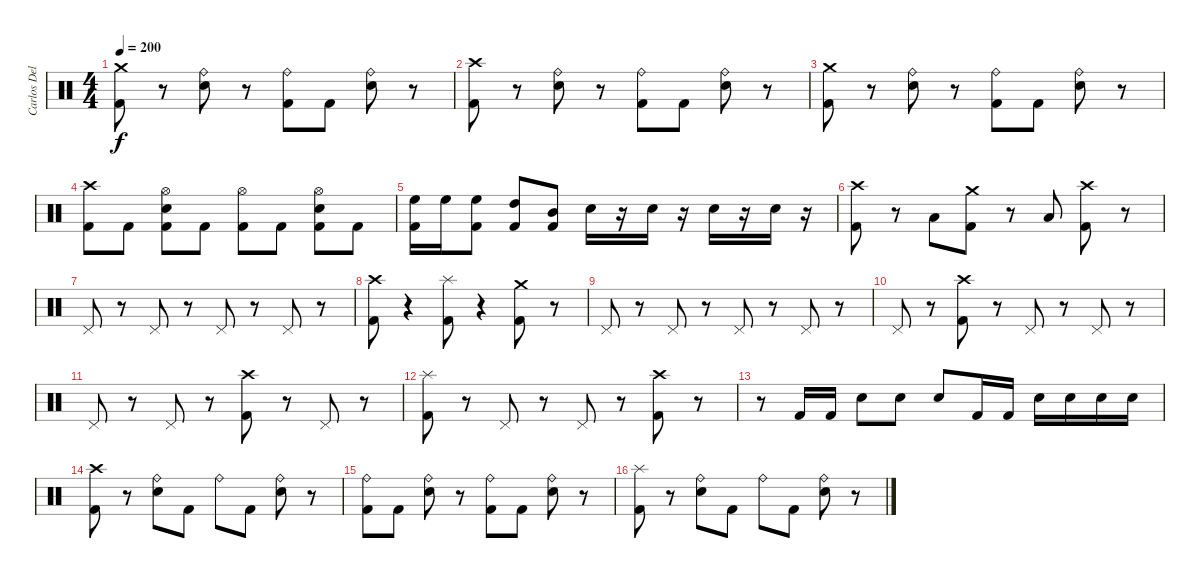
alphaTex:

\track ("Carlos Delgado" "Carlos Del") {instrument percussion}
\staff {score}
\articulation defaults
\ts (4 4)
\tempo 200
\clef neutral
\ks c
("Kick (hit) 2" "Crash medium (hit)").8{dy f} r.8 ("Electric Snare (hit)" "Ride (bell)").8 r.8 ("Ride (bell)" "Kick (hit) 2").8 "Kick (hit) 2".8 ("Ride (bell)" "Electric Snare (hit)").8 r.8 |
("Kick (hit) 2" "Crash high (hit)").8 r.8 ("Electric Snare (hit)" "Ride (bell)").8 r.8 ("Ride (bell)" "Kick (hit) 2").8 "Kick (hit) 2".8 ("Ride (bell)" "Electric Snare (hit)").8 r.8 |
("Crash medium (hit)" "Kick (hit) 2").8 r.8 ("Ride (bell)" "Electric Snare (hit)").8 r.8 ("Ride (bell)" "Kick (hit) 2").8 "Kick (hit) 2".8 ("Ride (bell)" "Electric Snare (hit)").8 r.8 |
("Kick (hit) 2" "Crash high (hit)").8 "Kick (hit) 2".8 ("Kick (hit) 2" "Hi-Hat (open)" "Electric Snare (hit)").8 "Kick (hit) 2".8 ("Kick (hit) 2" "Hi-Hat (open)").8 "Kick (hit) 2".8 ("Kick (hit) 2" "Electric Snare (hit)" "Hi-Hat (open)").8 "Kick (hit) 2".8 |
("Kick (hit) 2" "High Floor Tom (hit)").16 "High Floor Tom (hit)".16 ("Kick (hit) 2" "High Floor Tom (hit)").8 ("High Tom (hit)" "Kick (hit) 2").8 ("Kick (hit) 2" "Mid Tom (hit)").8 "Electric Snare (hit)".16 r.16 "Electric Snare (hit)".16 r.16 "Electric Snare (hit)".16 r.16 "Electric Snare (hit)".16 r.16 |
("Crash high (hit)" "Kick (hit) 2").8 r.8 "Low Floor Tom (hit)".8 ("Crash medium (hit)" "Kick (hit) 2").8 r.8 "Low Floor Tom (hit)".8 ("Crash high (hit)" "Kick (hit) 2").8 r.8 |
"Pedal Hi-Hat (hit)".8 r.8 "Pedal Hi-Hat (hit)".8 r.8 "Pedal Hi-Hat (hit)".8 r.8 "Pedal Hi-Hat (hit)".8 r.8 |
("Crash high (hit)" "Kick (hit) 2").8 r.4 ("Kick (hit) 2" "Splash (hit)").8 r.4 ("Crash medium (hit)" "Kick (hit) 2").8 r.8 |
"Pedal Hi-Hat (hit)".8 r.8 "Pedal Hi-Hat (hit)".8 r.8 "Pedal Hi-Hat (hit)".8 r.8 "Pedal Hi-Hat (hit)".8 r.8 |
"Pedal Hi-Hat (hit)".8 r.8 ("Crash high (hit)" "Kick (hit) 2").8 r.8 "Pedal Hi-Hat (hit)".8 r.8 "Pedal Hi-Hat (hit)".8 r.8 |
"Pedal Hi-Hat (hit)".8 r.8 "Pedal Hi-Hat (hit)".8 r.8 ("Kick (hit) 2" "Crash high (hit)").8 r.8 "Pedal Hi-Hat (hit)".8 r.8 |
("Splash (hit)" "Kick (hit) 2").8 r.8 "Pedal Hi-Hat (hit)".8 r.8 "Pedal Hi-Hat (hit)".8 r.8 ("Crash high (hit)" "Kick (hit) 2").8 r.8 |
r.8 "Kick (hit) 2".16 "Kick (hit) 2".16 "Electric Snare (hit)".8 "Electric Snare (hit)".8 "Electric Snare (hit)".8 "Kick (hit) 2".16 "Kick (hit) 2".16 "Electric Snare (hit)".16 "Electric Snare (hit)".16 "Electric Snare (hit)".16 "Electric Snare (hit)".16 |
("Crash high (hit)" "Kick (hit) 2").8 r.8 ("Ride (bell)" "Electric Snare (hit)").8 "Kick (hit) 2".8 "Ride (bell)".8 "Kick (hit) 2".8 ("Electric Snare (hit)" "Ride (bell)").8 r.8 |
("Ride (bell)" "Kick (hit) 2").8 "Kick (hit) 2".8 ("Ride (bell)" "Electric Snare (hit)").8 r.8 ("Ride (bell)" "Kick (hit) 2").8 "Kick (hit) 2".8 ("Ride (bell)" "Electric Snare (hit)").8 r.8 |
("Splash (hit)" "Kick (hit) 2").8 r.8 ("Ride (bell)" "Electric Snare (hit)").8 "Kick (hit) 2".8 "Ride (bell)".8 "Kick (hit) 2".8 ("Electric Snare (hit)" "Ride (bell)").8 r.8
